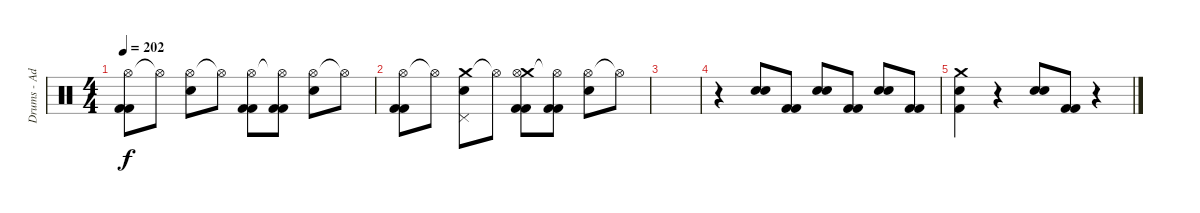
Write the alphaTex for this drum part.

\track ("Drums - Adam" "Drums - Ad") {instrument percussion}
\staff {score}
\articulation defaults
\ts (4 4)
\tempo 202
\clef neutral
\ks c
("Hi-Hat (open)" "Kick (hit) 2" "Kick (hit) 2").8{dy f} "Hi-Hat (open)"{t}.8 ("Hi-Hat (open)" "Electric Snare (hit)").8 "Hi-Hat (open)"{t}.8 ("Hi-Hat (open)" "Kick (hit) 2" "Kick (hit) 2").8 ("Hi-Hat (open)"{t} "Kick (hit) 2" "Kick (hit) 2").8 ("Hi-Hat (open)" "Electric Snare (hit)").8 "Hi-Hat (open)"{t}.8 |
("Hi-Hat (open)" "Kick (hit) 2" "Kick (hit) 2").8 "Hi-Hat (open)"{t}.8 ("Crash medium (hit)" "Pedal Hi-Hat (hit)" "Electric Snare (hit)").8 "Hi-Hat (open)"{t}.8 ("Crash medium (hit)" "Hi-Hat (open)" "Kick (hit) 2" "Kick (hit) 2").8 ("Hi-Hat (open)"{t} "Kick (hit) 2" "Kick (hit) 2").8 ("Hi-Hat (open)" "Electric Snare (hit)").8 "Hi-Hat (open)"{t}.8 |
|
r.4 ("Snare (hit) 2" "Electric Snare (hit)").8 ("Kick (hit) 2" "Kick (hit) 2").8 ("Snare (hit) 2" "Electric Snare (hit)").8 ("Kick (hit) 2" "Kick (hit) 2").8 ("Snare (hit) 2" "Electric Snare (hit)").8 ("Kick (hit) 2" "Kick (hit) 2").8 |
("Crash medium (hit)" "Electric Snare (hit)" "Kick (hit) 2").4 r.4 ("Snare (hit) 2" "Electric Snare (hit)").8 ("Kick (hit) 2" "Kick (hit) 2").8 r.4
